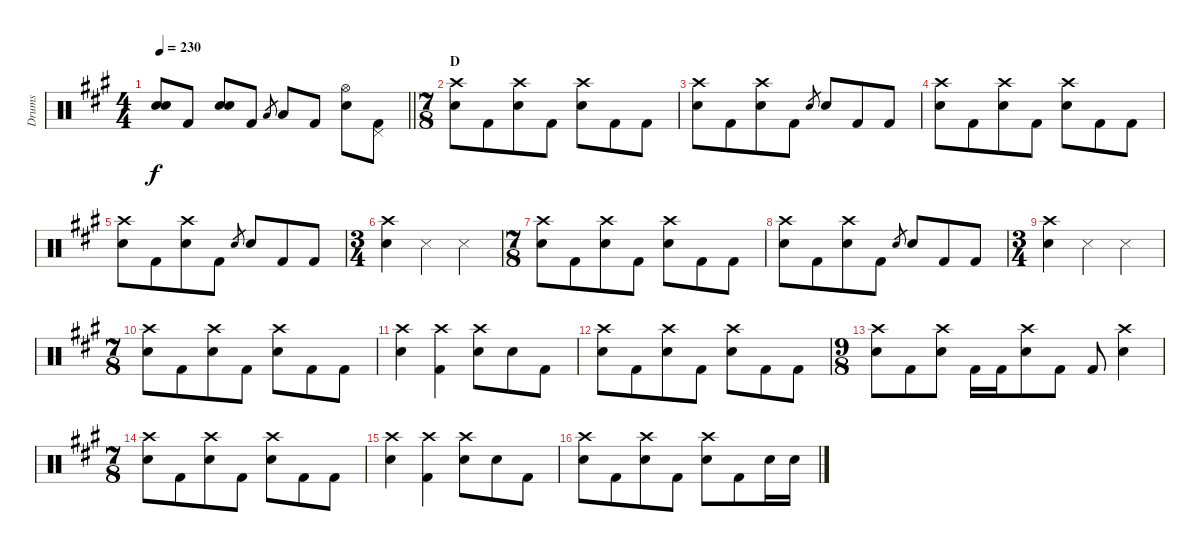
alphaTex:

\track ("Drums" "Drums") {instrument percussion}
\staff {score}
\articulation defaults
\ts (4 4)
\tempo 230
\clef neutral
\barLineRight lightlight
\ks f#minor
("Electric Snare (hit)" "Electric Snare (hit)").8{bu 120 dy f} "Kick (hit) 2".8 ("Electric Snare (hit)" "Electric Snare (hit)").8{bu 120} "Kick (hit) 2".8 "Low Tom (hit)".8{gr} "Low Tom (hit)".8 "Kick (hit) 2".8 ("Hi-Hat (open)" "Electric Snare (hit)").8 ("Pedal Hi-Hat (hit)" "Kick (hit) 2").8 |
\ts (7 8)
\section ("" "D")
("Crash high (hit)" "Electric Snare (hit)").8 "Kick (hit) 2".8 ("Crash high (hit)" "Electric Snare (hit)").8 "Kick (hit) 2".8 ("Crash high (hit)" "Electric Snare (hit)").8 "Kick (hit) 2".8 "Kick (hit) 2".8 |
("Crash high (hit)" "Electric Snare (hit)").8 "Kick (hit) 2".8 ("Crash high (hit)" "Electric Snare (hit)").8 "Kick (hit) 2".8 "Electric Snare (hit)".8{gr} "Electric Snare (hit)".8 "Kick (hit) 2".8 "Kick (hit) 2".8 |
("Crash high (hit)" "Electric Snare (hit)").8 "Kick (hit) 2".8 ("Crash high (hit)" "Electric Snare (hit)").8 "Kick (hit) 2".8 ("Crash high (hit)" "Electric Snare (hit)").8 "Kick (hit) 2".8 "Kick (hit) 2".8 |
("Crash high (hit)" "Electric Snare (hit)").8 "Kick (hit) 2".8 ("Crash high (hit)" "Electric Snare (hit)").8 "Kick (hit) 2".8 "Electric Snare (hit)".8{gr} "Electric Snare (hit)".8 "Kick (hit) 2".8 "Kick (hit) 2".8 |
\ts (3 4)
("Crash high (hit)" "Electric Snare (hit)").4 "Snare (side stick) 3".4 "Snare (side stick) 3".4 |
\ts (7 8)
("Crash high (hit)" "Electric Snare (hit)").8 "Kick (hit) 2".8 ("Crash high (hit)" "Electric Snare (hit)").8 "Kick (hit) 2".8 ("Crash high (hit)" "Electric Snare (hit)").8 "Kick (hit) 2".8 "Kick (hit) 2".8 |
("Crash high (hit)" "Electric Snare (hit)").8 "Kick (hit) 2".8 ("Crash high (hit)" "Electric Snare (hit)").8 "Kick (hit) 2".8 "Electric Snare (hit)".8{gr} "Electric Snare (hit)".8 "Kick (hit) 2".8 "Kick (hit) 2".8 |
\ts (3 4)
("Crash high (hit)" "Electric Snare (hit)").4 "Snare (side stick) 3".4 "Snare (side stick) 3".4 |
\ts (7 8)
("Crash high (hit)" "Electric Snare (hit)").8 "Kick (hit) 2".8 ("Crash high (hit)" "Electric Snare (hit)").8 "Kick (hit) 2".8 ("Crash high (hit)" "Electric Snare (hit)").8 "Kick (hit) 2".8 "Kick (hit) 2".8 |
("Crash high (hit)" "Electric Snare (hit)").4 ("Crash high (hit)" "Kick (hit) 2").4 ("Crash high (hit)" "Electric Snare (hit)").8 "Electric Snare (hit)".8 "Kick (hit) 2".8 |
("Crash high (hit)" "Electric Snare (hit)").8 "Kick (hit) 2".8 ("Crash high (hit)" "Electric Snare (hit)").8 "Kick (hit) 2".8 ("Crash high (hit)" "Electric Snare (hit)").8 "Kick (hit) 2".8 "Kick (hit) 2".8 |
\ts (9 8)
("Crash high (hit)" "Electric Snare (hit)").8 "Kick (hit) 2".8 ("Crash high (hit)" "Electric Snare (hit)").8 "Kick (hit) 2".16 "Kick (hit) 2".16 ("Crash high (hit)" "Electric Snare (hit)").8 "Kick (hit) 2".8 "Kick (hit) 2".8 ("Crash high (hit)" "Electric Snare (hit)").4 |
\ts (7 8)
("Crash high (hit)" "Electric Snare (hit)").8 "Kick (hit) 2".8 ("Crash high (hit)" "Electric Snare (hit)").8 "Kick (hit) 2".8 ("Crash high (hit)" "Electric Snare (hit)").8 "Kick (hit) 2".8 "Kick (hit) 2".8 |
("Crash high (hit)" "Electric Snare (hit)").4 ("Crash high (hit)" "Kick (hit) 2").4 ("Crash high (hit)" "Electric Snare (hit)").8 "Electric Snare (hit)".8 "Kick (hit) 2".8 |
("Crash high (hit)" "Electric Snare (hit)").8 "Kick (hit) 2".8 ("Crash high (hit)" "Electric Snare (hit)").8 "Kick (hit) 2".8 ("Crash high (hit)" "Electric Snare (hit)").8 "Kick (hit) 2".8 "Electric Snare (hit)".16 "Electric Snare (hit)".16
